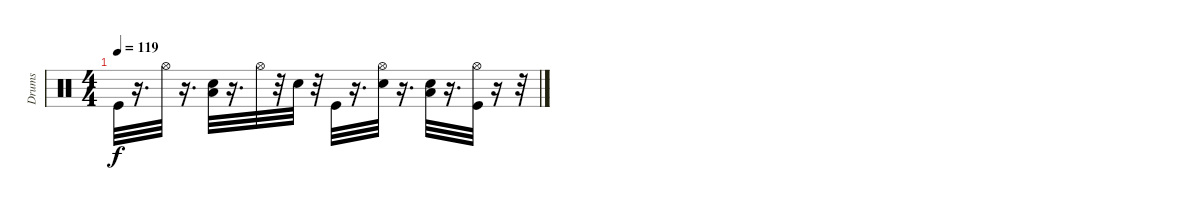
\track ("Drums" "Drums") {instrument percussion}
\staff {score}
\articulation defaults
\ts (4 4)
\tempo 119
\clef neutral
\ks c "Kick (hit)".32{dy f}
r.16{d} "Hi-Hat (open)".32 r.16{d} ("Low Floor Tom (hit)" "Hand Clap (hit)").32 r.16{d} "Hi-Hat (open)".32 r.32 "Hand Clap (hit)".32 r.32 "Kick (hit)".32 r.16{d} ("Hi-Hat (open)" "Hand Clap (hit)").32 r.16{d} ("Low Floor Tom (hit)" "Hand Clap (hit)").32 r.16{d} ("Kick (hit)" "Hi-Hat (open)").32 r.16 r.32
